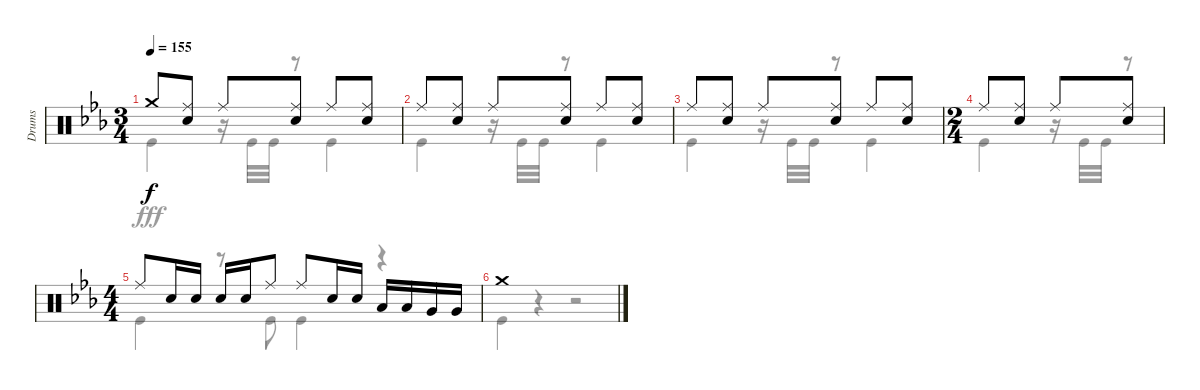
\track ("Drums" "Drums") {instrument percussion}
\staff {score}
\articulation defaults
\voice
\ts (3 4)
\tempo 155
\clef neutral
\ks eb "Crash medium (hit)".8{dy f}
("Ride (middle)" "Snare (hit) 2").8 "Ride (middle)".8 ("Ride (middle)" "Snare (hit) 2").8 "Ride (middle)".8 ("Ride (middle)" "Snare (hit) 2").8 |
"Ride (middle)".8 ("Ride (middle)" "Snare (hit) 2").8 "Ride (middle)".8 ("Ride (middle)" "Snare (hit) 2").8 "Ride (middle)".8 ("Ride (middle)" "Snare (hit) 2").8 |
"Ride (middle)".8 ("Ride (middle)" "Snare (hit) 2").8 "Ride (middle)".8 ("Ride (middle)" "Snare (hit) 2").8 "Ride (middle)".8 ("Ride (middle)" "Snare (hit) 2").8 |
\ts (2 4)
"Ride (middle)".8 ("Ride (middle)" "Snare (hit) 2").8 "Ride (middle)".8 ("Ride (middle)" "Snare (hit) 2").8 |
\ts (4 4)
"Ride (middle)".8 "Snare (hit) 2".16 "Snare (hit) 2".16 "Snare (hit) 2".16 "Snare (hit) 2".16 "Ride (middle)".8 "Ride (middle)".8 "Snare (hit) 2".16 "Snare (hit) 2".16 "Low Tom (hit)".16 "Low Tom (hit)".16 "Very Low Tom (hit)".16 "Very Low Tom (hit)".16 |
"Crash medium (hit)".1
\voice
\clef neutral
\ottava regular
\simile none
\ks eb "Kick (hit)".4{dy fff}
r.16 "Kick (hit)".32 "Kick (hit)".32 r.8 "Kick (hit)".4 |
"Kick (hit)".4 r.16 "Kick (hit)".32 "Kick (hit)".32 r.8 "Kick (hit)".4 |
"Kick (hit)".4 r.16 "Kick (hit)".32 "Kick (hit)".32 r.8 "Kick (hit)".4 |
"Kick (hit)".4 r.16 "Kick (hit)".32 "Kick (hit)".32 r.8 |
"Kick (hit)".4 r.8 "Kick (hit)".8 "Kick (hit)".4 r.4 |
"Kick (hit)".4 r.4 r.2
